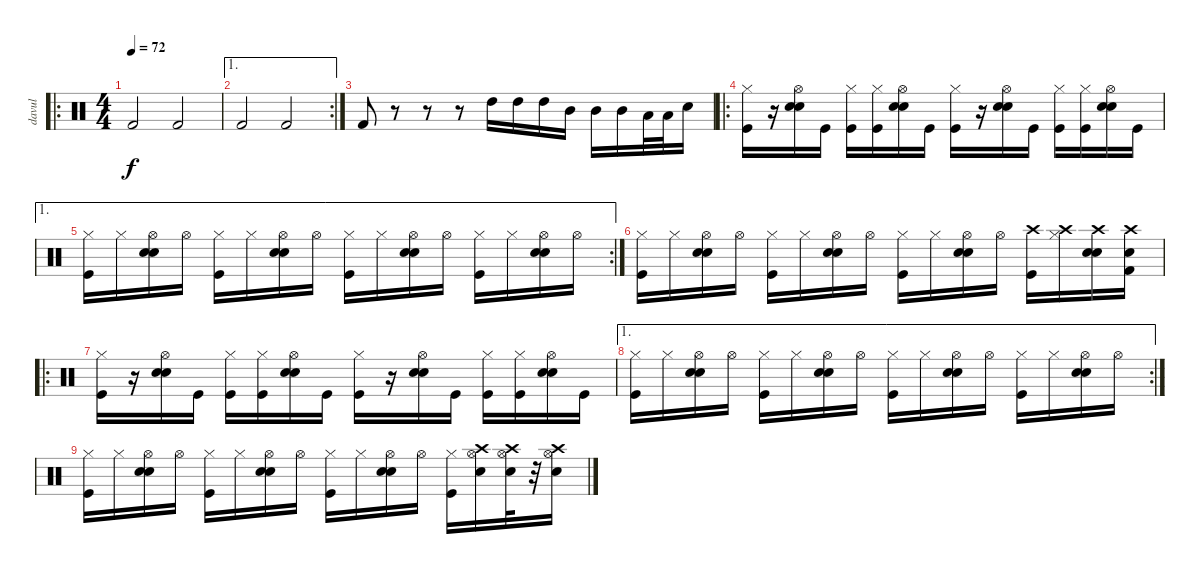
\track ("davul" "davul") {instrument percussion}
\staff {score}
\articulation defaults
\ro
\ts (4 4)
\tempo 72
\clef neutral
\ks c "Kick (hit) 2".2{dy f} "Kick (hit) 2".2
|
\ae 1
\rc 2 "Kick (hit) 2".2 "Kick (hit) 2".2
|
"Kick (hit) 2".8 r.8 r.8 r.8 "High Tom (hit)".16 "High Tom (hit)".16 "High Tom (hit)".16 "Mid Tom (hit)".16 "Mid Tom (hit)".16 "Mid Tom (hit)".16 "Low Floor Tom (hit)".32 "Low Floor Tom (hit)".32 "Snare (hit) 2".16 |
\ro
("Hi-Hat (closed)" "Kick (hit)").16 r.16 ("Hi-Hat (open)" "Snare (hit) 2" "Electric Snare (hit)").16 "Kick (hit)".16 ("Hi-Hat (closed)" "Kick (hit)").16 ("Hi-Hat (closed)" "Kick (hit)").16 ("Hi-Hat (open)" "Snare (hit) 2" "Electric Snare (hit)").16 "Kick (hit)".16 ("Hi-Hat (closed)" "Kick (hit)").16 r.16 ("Hi-Hat (open)" "Snare (hit) 2" "Electric Snare (hit)").16 "Kick (hit)".16 ("Hi-Hat (closed)" "Kick (hit)").16 ("Hi-Hat (closed)" "Kick (hit)").16 ("Hi-Hat (open)" "Snare (hit) 2" "Electric Snare (hit)").16 "Kick (hit)".16 |
\ae 1
\rc 2
("Hi-Hat (closed)" "Kick (hit)").16 "Hi-Hat (closed)".16 ("Hi-Hat (open)" "Snare (hit) 2" "Electric Snare (hit)").16 "Hi-Hat (open)".16 ("Hi-Hat (closed)" "Kick (hit)").16 "Hi-Hat (closed)".16 ("Hi-Hat (open)" "Snare (hit) 2" "Electric Snare (hit)").16 "Hi-Hat (open)".16 ("Hi-Hat (closed)" "Kick (hit)").16 "Hi-Hat (closed)".16 ("Hi-Hat (open)" "Snare (hit) 2" "Electric Snare (hit)").16 "Hi-Hat (open)".16 ("Hi-Hat (closed)" "Kick (hit)").16 "Hi-Hat (closed)".16 ("Hi-Hat (open)" "Snare (hit) 2" "Electric Snare (hit)").16 "Hi-Hat (open)".16 |
("Hi-Hat (closed)" "Kick (hit)").16 "Hi-Hat (closed)".16 ("Hi-Hat (open)" "Snare (hit) 2" "Electric Snare (hit)").16 "Hi-Hat (open)".16 ("Hi-Hat (closed)" "Kick (hit)").16 "Hi-Hat (closed)".16 ("Hi-Hat (open)" "Snare (hit) 2" "Electric Snare (hit)").16 "Hi-Hat (open)".16 ("Hi-Hat (closed)" "Kick (hit)").16 "Hi-Hat (closed)".16 ("Hi-Hat (open)" "Snare (hit) 2" "Electric Snare (hit)").16 "Hi-Hat (open)".16 ("Crash high (hit)" "Kick (hit)").16 ("Crash high (hit)" "Hi-Hat (closed)").16 ("Crash high (hit)" "Snare (hit) 2" "Electric Snare (hit)").16 ("Electric Snare (hit)" "Crash high (hit)" "Kick (hit) 2").16 |
\ro
("Hi-Hat (closed)" "Kick (hit)").16 r.16 ("Hi-Hat (open)" "Snare (hit) 2" "Electric Snare (hit)").16 "Kick (hit)".16 ("Hi-Hat (closed)" "Kick (hit)").16 ("Hi-Hat (closed)" "Kick (hit)").16 ("Hi-Hat (open)" "Snare (hit) 2" "Electric Snare (hit)").16 "Kick (hit)".16 ("Hi-Hat (closed)" "Kick (hit)").16 r.16 ("Hi-Hat (open)" "Snare (hit) 2" "Electric Snare (hit)").16 "Kick (hit)".16 ("Hi-Hat (closed)" "Kick (hit)").16 ("Hi-Hat (closed)" "Kick (hit)").16 ("Hi-Hat (open)" "Snare (hit) 2" "Electric Snare (hit)").16 "Kick (hit)".16 |
\ae 1
\rc 2
("Hi-Hat (closed)" "Kick (hit)").16 "Hi-Hat (closed)".16 ("Hi-Hat (open)" "Snare (hit) 2" "Electric Snare (hit)").16 "Hi-Hat (open)".16 ("Hi-Hat (closed)" "Kick (hit)").16 "Hi-Hat (closed)".16 ("Hi-Hat (open)" "Snare (hit) 2" "Electric Snare (hit)").16 "Hi-Hat (open)".16 ("Hi-Hat (closed)" "Kick (hit)").16 "Hi-Hat (closed)".16 ("Hi-Hat (open)" "Snare (hit) 2" "Electric Snare (hit)").16 "Hi-Hat (open)".16 ("Hi-Hat (closed)" "Kick (hit)").16 "Hi-Hat (closed)".16 ("Hi-Hat (open)" "Snare (hit) 2" "Electric Snare (hit)").16 "Hi-Hat (open)".16 |
("Hi-Hat (closed)" "Kick (hit)").16 "Hi-Hat (closed)".16 ("Hi-Hat (open)" "Snare (hit) 2" "Electric Snare (hit)").16 "Hi-Hat (open)".16 ("Hi-Hat (closed)" "Kick (hit)").16 "Hi-Hat (closed)".16 ("Hi-Hat (open)" "Snare (hit) 2" "Electric Snare (hit)").16 "Hi-Hat (open)".16 ("Hi-Hat (closed)" "Kick (hit)").16 "Hi-Hat (closed)".16 ("Hi-Hat (open)" "Snare (hit) 2" "Electric Snare (hit)").16 "Hi-Hat (open)".16 ("Hi-Hat (closed)" "Kick (hit)").16 ("Hi-Hat (open)" "Crash high (hit)" "Electric Snare (hit)").16 ("Hi-Hat (open)" "Crash high (hit)" "Electric Snare (hit)").32 r.32 ("Hi-Hat (open)" "Crash high (hit)" "Electric Snare (hit)").16
